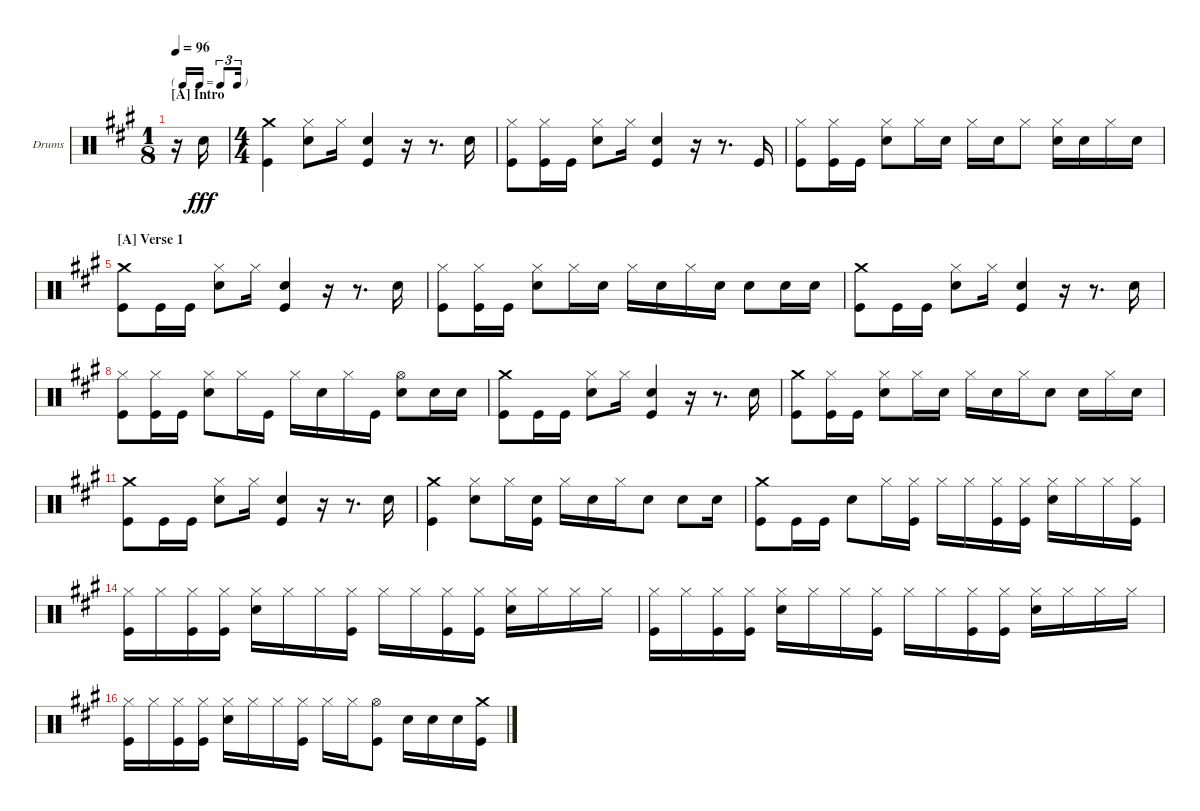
\bracketExtendMode nobrackets
\firstSystemTrackNameOrientation horizontal
\otherSystemsTrackNameOrientation horizontal
\defaultBarNumberDisplay FirstOfSystem
\track ("Drumkit" "Drums") {instrument percussion}
\staff {score}
\articulation defaults
\ts (1 8)
\tf triplet16th
\section ("A" "Intro")
\tempo 96
\clef neutral
\ks a
r.16{dy fff} "Snare (hit) 2".16 |
\ts (4 4)
("Kick (hit)" "Crash medium (hit)").4 ("Snare (hit) 2" "Hi-Hat (closed)").8 "Hi-Hat (closed)".16 ("Kick (hit)" "Snare (hit) 2").4 r.16 r.8{d} "Snare (hit) 2".16 |
("Hi-Hat (closed)" "Kick (hit)").8 ("Kick (hit)" "Hi-Hat (closed)").16 "Kick (hit)".16 ("Snare (hit) 2" "Hi-Hat (closed)").8 "Hi-Hat (closed)".16 ("Kick (hit)" "Snare (hit) 2").4 r.16 r.8{d} "Kick (hit)".16 |
("Kick (hit)" "Hi-Hat (closed)").8 ("Kick (hit)" "Hi-Hat (closed)").16 "Kick (hit)".16 ("Snare (hit) 2" "Hi-Hat (closed)").8 "Hi-Hat (closed)".16 "Snare (hit) 2".16 "Hi-Hat (closed)".16 "Snare (hit) 2".16 "Hi-Hat (closed)".8 ("Hi-Hat (closed)" "Snare (hit) 2").16 "Snare (hit) 2".16 "Hi-Hat (closed)".16 "Snare (hit) 2".16 |
\section ("A" "Verse 1")
("Crash medium (hit)" "Kick (hit)").8 "Kick (hit)".16 "Kick (hit)".16 ("Snare (hit) 2" "Hi-Hat (closed)").8 "Hi-Hat (closed)".16 ("Kick (hit)" "Snare (hit) 2").4 r.16 r.8{d} "Snare (hit) 2".16 |
("Kick (hit)" "Hi-Hat (closed)").8 ("Kick (hit)" "Hi-Hat (closed)").16 "Kick (hit)".16 ("Snare (hit) 2" "Hi-Hat (closed)").8 "Hi-Hat (closed)".16 "Snare (hit) 2".16 "Hi-Hat (closed)".16 "Snare (hit) 2".16 "Hi-Hat (closed)".16 "Snare (hit) 2".16 "Snare (hit) 2".8 "Snare (hit) 2".16 "Snare (hit) 2".16 |
("Crash medium (hit)" "Kick (hit)").8 "Kick (hit)".16 "Kick (hit)".16 ("Snare (hit) 2" "Hi-Hat (closed)").8 "Hi-Hat (closed)".16 ("Kick (hit)" "Snare (hit) 2").4 r.16 r.8{d} "Snare (hit) 2".16 |
("Hi-Hat (closed)" "Kick (hit)").8 ("Kick (hit)" "Hi-Hat (closed)").16 "Kick (hit)".16 ("Hi-Hat (closed)" "Snare (hit) 2").8 "Hi-Hat (closed)".16 "Kick (hit)".16 "Hi-Hat (closed)".16 "Snare (hit) 2".16 "Hi-Hat (closed)".16 "Kick (hit)".16 ("Hi-Hat (open)" "Snare (hit) 2").8 "Snare (hit) 2".16 "Snare (hit) 2".16 |
("Crash medium (hit)" "Kick (hit)").8 "Kick (hit)".16 "Kick (hit)".16 ("Snare (hit) 2" "Hi-Hat (closed)").8 "Hi-Hat (closed)".16 ("Kick (hit)" "Snare (hit) 2").4 r.16 r.8{d} "Snare (hit) 2".16 |
("Crash medium (hit)" "Kick (hit)").8 ("Kick (hit)" "Hi-Hat (closed)").16 "Kick (hit)".16 ("Hi-Hat (closed)" "Snare (hit) 2").8 "Hi-Hat (closed)".16 "Snare (hit) 2".16 "Hi-Hat (closed)".16 "Snare (hit) 2".16 "Hi-Hat (closed)".16 "Snare (hit) 2".8 "Snare (hit) 2".16 "Hi-Hat (closed)".16 "Snare (hit) 2".16 |
("Crash medium (hit)" "Kick (hit)").8 "Kick (hit)".16 "Kick (hit)".16 ("Snare (hit) 2" "Hi-Hat (closed)").8 "Hi-Hat (closed)".16 ("Kick (hit)" "Snare (hit) 2").4 r.16 r.8{d} "Snare (hit) 2".16 |
("Crash medium (hit)" "Kick (hit)").4 ("Hi-Hat (closed)" "Snare (hit) 2").8 "Hi-Hat (closed)".16 ("Snare (hit) 2" "Kick (hit)").16 "Hi-Hat (closed)".16 "Snare (hit) 2".16 "Hi-Hat (closed)".16 "Snare (hit) 2".8 "Snare (hit) 2".8 "Snare (hit) 2".16 |
("Kick (hit)" "Crash medium (hit)").8 "Kick (hit)".16 "Kick (hit)".16 "Snare (hit) 2".8 "Hi-Hat (closed)".16 ("Hi-Hat (closed)" "Kick (hit)").16 "Hi-Hat (closed)".16 "Hi-Hat (closed)".16 ("Kick (hit)" "Hi-Hat (closed)").16 ("Hi-Hat (closed)" "Kick (hit)").16 ("Snare (hit) 2" "Hi-Hat (closed)").16 "Hi-Hat (closed)".16 "Hi-Hat (closed)".16 ("Hi-Hat (closed)" "Kick (hit)").16 |
("Hi-Hat (closed)" "Kick (hit)").16 "Hi-Hat (closed)".16 ("Hi-Hat (closed)" "Kick (hit)").16 ("Hi-Hat (closed)" "Kick (hit)").16 ("Hi-Hat (closed)" "Snare (hit) 2").16 "Hi-Hat (closed)".16 "Hi-Hat (closed)".16 ("Kick (hit)" "Hi-Hat (closed)").16 "Hi-Hat (closed)".16 "Hi-Hat (closed)".16 ("Hi-Hat (closed)" "Kick (hit)").16 ("Hi-Hat (closed)" "Kick (hit)").16 ("Snare (hit) 2" "Hi-Hat (closed)").16 "Hi-Hat (closed)".16 "Hi-Hat (closed)".16 "Hi-Hat (closed)".16 |
("Hi-Hat (closed)" "Kick (hit)").16 "Hi-Hat (closed)".16 ("Hi-Hat (closed)" "Kick (hit)").16 ("Hi-Hat (closed)" "Kick (hit)").16 ("Snare (hit) 2" "Hi-Hat (closed)").16 "Hi-Hat (closed)".16 "Hi-Hat (closed)".16 ("Kick (hit)" "Hi-Hat (closed)").16 "Hi-Hat (closed)".16 "Hi-Hat (closed)".16 ("Kick (hit)" "Hi-Hat (closed)").16 ("Kick (hit)" "Hi-Hat (closed)").16 ("Snare (hit) 2" "Hi-Hat (closed)").16 "Hi-Hat (closed)".16 "Hi-Hat (closed)".16 "Hi-Hat (closed)".16 |
("Kick (hit)" "Hi-Hat (closed)").16 "Hi-Hat (closed)".16 ("Kick (hit)" "Hi-Hat (closed)").16 ("Kick (hit)" "Hi-Hat (closed)").16 ("Snare (hit) 2" "Hi-Hat (closed)").16 "Hi-Hat (closed)".16 "Hi-Hat (closed)".16 ("Kick (hit)" "Hi-Hat (closed)").16 "Hi-Hat (closed)".16 "Hi-Hat (closed)".16 ("Kick (hit)" "Hi-Hat (open)").8 "Snare (hit) 2".16 "Snare (hit) 2".16 "Snare (hit) 2".16 ("Kick (hit)" "Crash medium (hit)").16
